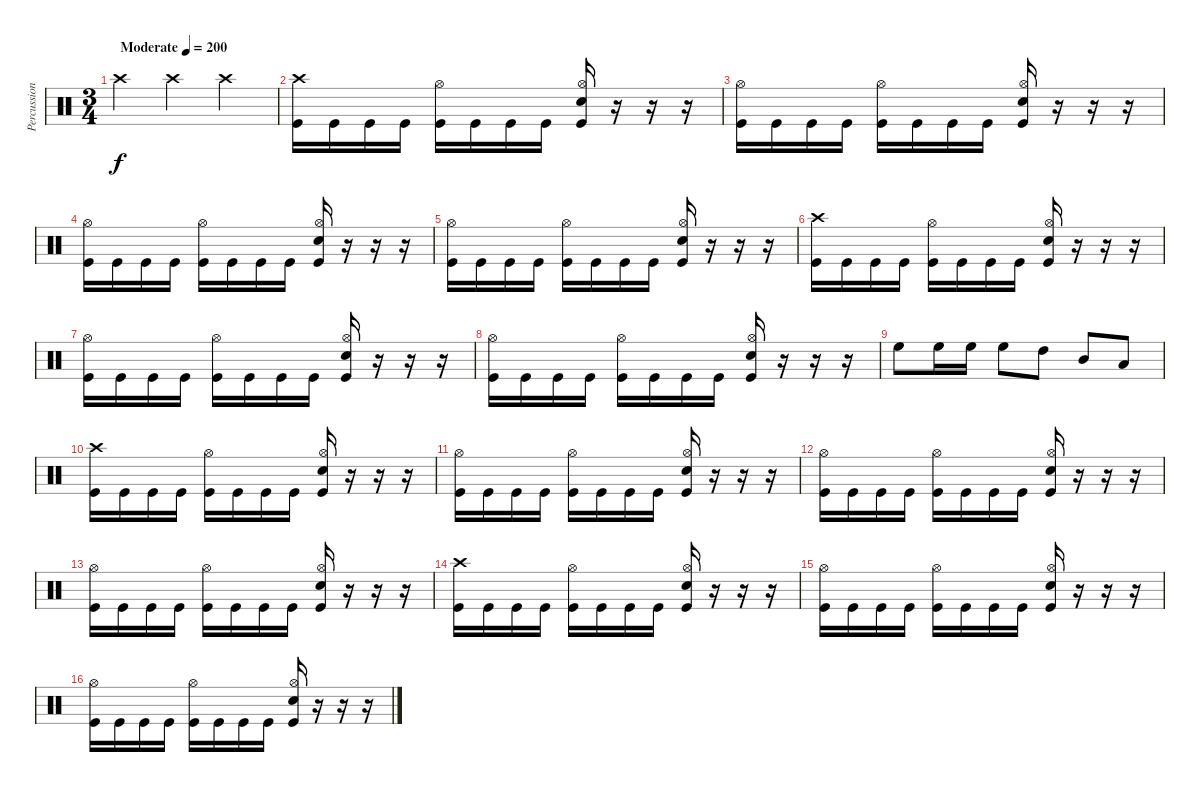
\track ("Percussion" "Percussion") {instrument percussion}
\staff {score}
\articulation defaults
\ts (3 4)
\tempo (200 "Moderate")
\clef neutral
\ks c "Crash high (hit)".4{dy f} "Crash high (hit)".4 "Crash high (hit)".4
|
("Crash high (hit)" "Kick (hit)").16 "Kick (hit)".16 "Kick (hit)".16 "Kick (hit)".16 ("Hi-Hat (open)" "Kick (hit)").16 "Kick (hit)".16 "Kick (hit)".16 "Kick (hit)".16 ("Hi-Hat (open)" "Snare (hit) 2" "Kick (hit)").16 r.16 r.16 r.16 |
("Hi-Hat (open)" "Kick (hit)").16 "Kick (hit)".16 "Kick (hit)".16 "Kick (hit)".16 ("Hi-Hat (open)" "Kick (hit)").16 "Kick (hit)".16 "Kick (hit)".16 "Kick (hit)".16 ("Hi-Hat (open)" "Snare (hit) 2" "Kick (hit)").16 r.16 r.16 r.16 |
("Hi-Hat (open)" "Kick (hit)").16 "Kick (hit)".16 "Kick (hit)".16 "Kick (hit)".16 ("Hi-Hat (open)" "Kick (hit)").16 "Kick (hit)".16 "Kick (hit)".16 "Kick (hit)".16 ("Hi-Hat (open)" "Snare (hit) 2" "Kick (hit)").16 r.16 r.16 r.16 |
("Hi-Hat (open)" "Kick (hit)").16 "Kick (hit)".16 "Kick (hit)".16 "Kick (hit)".16 ("Hi-Hat (open)" "Kick (hit)").16 "Kick (hit)".16 "Kick (hit)".16 "Kick (hit)".16 ("Hi-Hat (open)" "Snare (hit) 2" "Kick (hit)").16 r.16 r.16 r.16 |
("Crash high (hit)" "Kick (hit)").16 "Kick (hit)".16 "Kick (hit)".16 "Kick (hit)".16 ("Hi-Hat (open)" "Kick (hit)").16 "Kick (hit)".16 "Kick (hit)".16 "Kick (hit)".16 ("Hi-Hat (open)" "Snare (hit) 2" "Kick (hit)").16 r.16 r.16 r.16 |
("Hi-Hat (open)" "Kick (hit)").16 "Kick (hit)".16 "Kick (hit)".16 "Kick (hit)".16 ("Hi-Hat (open)" "Kick (hit)").16 "Kick (hit)".16 "Kick (hit)".16 "Kick (hit)".16 ("Hi-Hat (open)" "Snare (hit) 2" "Kick (hit)").16 r.16 r.16 r.16 |
("Hi-Hat (open)" "Kick (hit)").16 "Kick (hit)".16 "Kick (hit)".16 "Kick (hit)".16 ("Hi-Hat (open)" "Kick (hit)").16 "Kick (hit)".16 "Kick (hit)".16 "Kick (hit)".16 ("Hi-Hat (open)" "Snare (hit) 2" "Kick (hit)").16 r.16 r.16 r.16 |
"High Floor Tom (hit)".8 "High Floor Tom (hit)".16 "High Floor Tom (hit)".16 "High Floor Tom (hit)".8 "High Tom (hit)".8 "Mid Tom (hit)".8 "Low Tom (hit)".8 |
("Crash high (hit)" "Kick (hit)").16 "Kick (hit)".16 "Kick (hit)".16 "Kick (hit)".16 ("Hi-Hat (open)" "Kick (hit)").16 "Kick (hit)".16 "Kick (hit)".16 "Kick (hit)".16 ("Hi-Hat (open)" "Snare (hit) 2" "Kick (hit)").16 r.16 r.16 r.16 |
("Hi-Hat (open)" "Kick (hit)").16 "Kick (hit)".16 "Kick (hit)".16 "Kick (hit)".16 ("Hi-Hat (open)" "Kick (hit)").16 "Kick (hit)".16 "Kick (hit)".16 "Kick (hit)".16 ("Hi-Hat (open)" "Snare (hit) 2" "Kick (hit)").16 r.16 r.16 r.16 |
("Hi-Hat (open)" "Kick (hit)").16 "Kick (hit)".16 "Kick (hit)".16 "Kick (hit)".16 ("Hi-Hat (open)" "Kick (hit)").16 "Kick (hit)".16 "Kick (hit)".16 "Kick (hit)".16 ("Hi-Hat (open)" "Snare (hit) 2" "Kick (hit)").16 r.16 r.16 r.16 |
("Hi-Hat (open)" "Kick (hit)").16 "Kick (hit)".16 "Kick (hit)".16 "Kick (hit)".16 ("Hi-Hat (open)" "Kick (hit)").16 "Kick (hit)".16 "Kick (hit)".16 "Kick (hit)".16 ("Hi-Hat (open)" "Snare (hit) 2" "Kick (hit)").16 r.16 r.16 r.16 |
("Crash high (hit)" "Kick (hit)").16 "Kick (hit)".16 "Kick (hit)".16 "Kick (hit)".16 ("Hi-Hat (open)" "Kick (hit)").16 "Kick (hit)".16 "Kick (hit)".16 "Kick (hit)".16 ("Hi-Hat (open)" "Snare (hit) 2" "Kick (hit)").16 r.16 r.16 r.16 |
("Hi-Hat (open)" "Kick (hit)").16 "Kick (hit)".16 "Kick (hit)".16 "Kick (hit)".16 ("Hi-Hat (open)" "Kick (hit)").16 "Kick (hit)".16 "Kick (hit)".16 "Kick (hit)".16 ("Hi-Hat (open)" "Snare (hit) 2" "Kick (hit)").16 r.16 r.16 r.16 |
("Hi-Hat (open)" "Kick (hit)").16 "Kick (hit)".16 "Kick (hit)".16 "Kick (hit)".16 ("Hi-Hat (open)" "Kick (hit)").16 "Kick (hit)".16 "Kick (hit)".16 "Kick (hit)".16 ("Hi-Hat (open)" "Snare (hit) 2" "Kick (hit)").16 r.16 r.16 r.16
